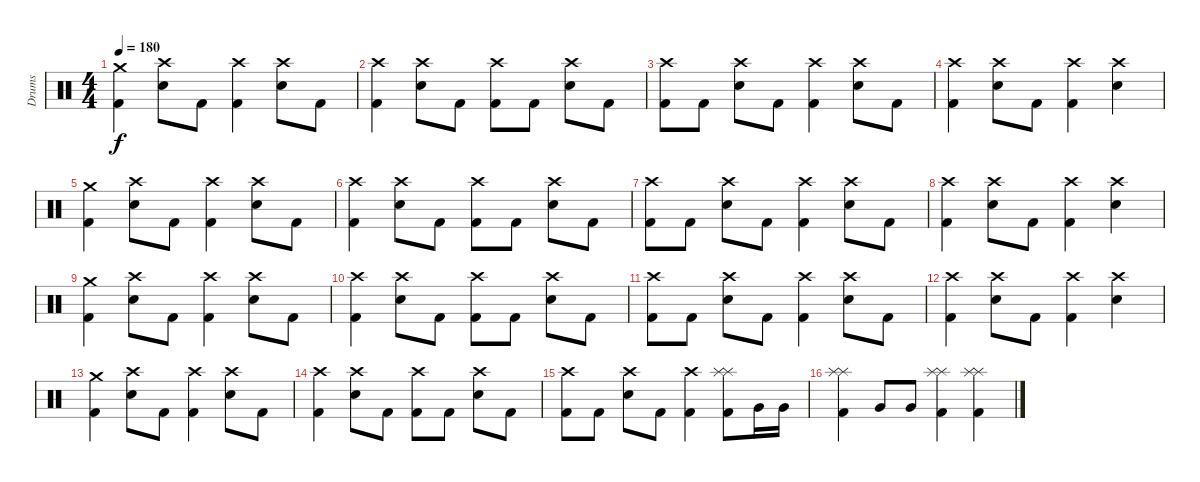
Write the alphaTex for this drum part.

\track ("Drums" "Drums") {instrument percussion}
\staff {score}
\articulation defaults
\ts (4 4)
\tempo 180
\clef neutral
\ks c
("Crash medium (hit)" "Kick (hit) 2").4{dy f} ("Crash high (hit)" "Snare (hit) 2").8 "Kick (hit) 2".8 ("Crash high (hit)" "Kick (hit) 2").4 ("Crash high (hit)" "Snare (hit) 2").8 "Kick (hit) 2".8 |
("Crash high (hit)" "Kick (hit) 2").4 ("Crash high (hit)" "Snare (hit) 2").8 "Kick (hit) 2".8 ("Crash high (hit)" "Kick (hit) 2").8 "Kick (hit) 2".8 ("Crash high (hit)" "Snare (hit) 2").8 "Kick (hit) 2".8 |
("Crash high (hit)" "Kick (hit) 2").8 "Kick (hit) 2".8 ("Crash high (hit)" "Snare (hit) 2").8 "Kick (hit) 2".8 ("Crash high (hit)" "Kick (hit) 2").4 ("Crash high (hit)" "Snare (hit) 2").8 "Kick (hit) 2".8 |
("Crash high (hit)" "Kick (hit) 2").4 ("Crash high (hit)" "Snare (hit) 2").8 "Kick (hit) 2".8 ("Crash high (hit)" "Kick (hit) 2").4 ("Crash high (hit)" "Snare (hit) 2").4 |
("Crash medium (hit)" "Kick (hit) 2").4 ("Crash high (hit)" "Snare (hit) 2").8 "Kick (hit) 2".8 ("Crash high (hit)" "Kick (hit) 2").4 ("Crash high (hit)" "Snare (hit) 2").8 "Kick (hit) 2".8 |
("Crash high (hit)" "Kick (hit) 2").4 ("Crash high (hit)" "Snare (hit) 2").8 "Kick (hit) 2".8 ("Crash high (hit)" "Kick (hit) 2").8 "Kick (hit) 2".8 ("Crash high (hit)" "Snare (hit) 2").8 "Kick (hit) 2".8 |
("Crash high (hit)" "Kick (hit) 2").8 "Kick (hit) 2".8 ("Crash high (hit)" "Snare (hit) 2").8 "Kick (hit) 2".8 ("Crash high (hit)" "Kick (hit) 2").4 ("Crash high (hit)" "Snare (hit) 2").8 "Kick (hit) 2".8 |
("Crash high (hit)" "Kick (hit) 2").4 ("Crash high (hit)" "Snare (hit) 2").8 "Kick (hit) 2".8 ("Crash high (hit)" "Kick (hit) 2").4 ("Crash high (hit)" "Snare (hit) 2").4 |
("Crash medium (hit)" "Kick (hit) 2").4 ("Crash high (hit)" "Snare (hit) 2").8 "Kick (hit) 2".8 ("Crash high (hit)" "Kick (hit) 2").4 ("Crash high (hit)" "Snare (hit) 2").8 "Kick (hit) 2".8 |
("Crash high (hit)" "Kick (hit) 2").4 ("Crash high (hit)" "Snare (hit) 2").8 "Kick (hit) 2".8 ("Crash high (hit)" "Kick (hit) 2").8 "Kick (hit) 2".8 ("Crash high (hit)" "Snare (hit) 2").8 "Kick (hit) 2".8 |
("Crash high (hit)" "Kick (hit) 2").8 "Kick (hit) 2".8 ("Crash high (hit)" "Snare (hit) 2").8 "Kick (hit) 2".8 ("Crash high (hit)" "Kick (hit) 2").4 ("Crash high (hit)" "Snare (hit) 2").8 "Kick (hit) 2".8 |
("Crash high (hit)" "Kick (hit) 2").4 ("Crash high (hit)" "Snare (hit) 2").8 "Kick (hit) 2".8 ("Crash high (hit)" "Kick (hit) 2").4 ("Crash high (hit)" "Snare (hit) 2").4 |
("Crash medium (hit)" "Kick (hit) 2").4 ("Crash high (hit)" "Snare (hit) 2").8 "Kick (hit) 2".8 ("Crash high (hit)" "Kick (hit) 2").4 ("Crash high (hit)" "Snare (hit) 2").8 "Kick (hit) 2".8 |
("Crash high (hit)" "Kick (hit) 2").4 ("Crash high (hit)" "Snare (hit) 2").8 "Kick (hit) 2".8 ("Crash high (hit)" "Kick (hit) 2").8 "Kick (hit) 2".8 ("Crash high (hit)" "Snare (hit) 2").8 "Kick (hit) 2".8 |
("Crash high (hit)" "Kick (hit) 2").8 "Kick (hit) 2".8 ("Crash high (hit)" "Snare (hit) 2").8 "Kick (hit) 2".8 ("Crash high (hit)" "Kick (hit) 2").4 ("Splash (hit)" "Splash (hit)" "Kick (hit) 2").8 "Very Low Tom (hit)".16 "Very Low Tom (hit)".16 |
("Splash (hit)" "Splash (hit)" "Kick (hit) 2").4 "Very Low Tom (hit)".8 "Very Low Tom (hit)".8 ("Splash (hit)" "Splash (hit)" "Kick (hit) 2").4 ("Splash (hit)" "Splash (hit)" "Kick (hit) 2").4
